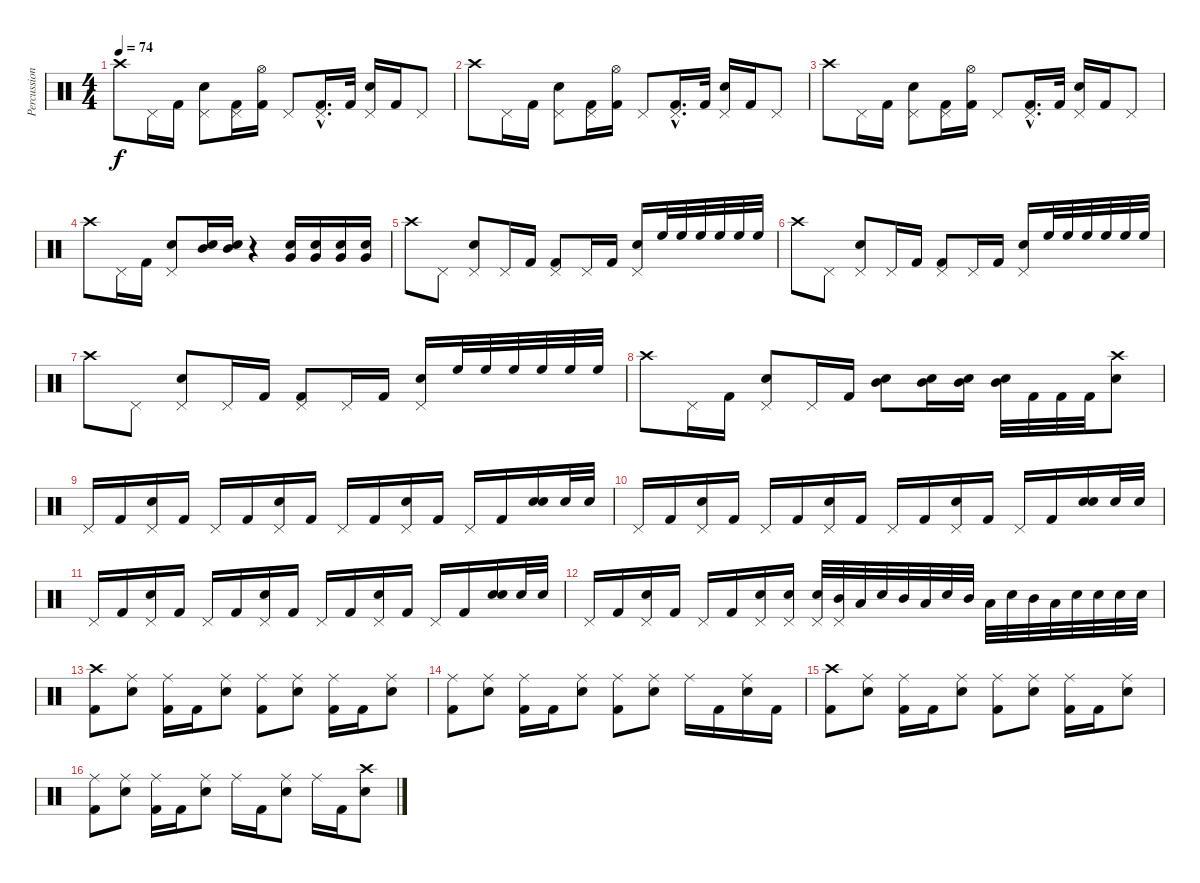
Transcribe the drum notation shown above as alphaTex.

\track ("Percussion" "Percussion") {instrument percussion}
\staff {score}
\articulation defaults
\ts (4 4)
\tempo 74
\clef neutral
\ks c "Crash high (hit)".8{dy f} "Pedal Hi-Hat (hit)".16 "Kick (hit) 2".16
("Pedal Hi-Hat (hit)" "Snare (hit) 2").8 ("Pedal Hi-Hat (hit)" "Kick (hit) 2").16 ("Hi-Hat (open)" "Kick (hit) 2").16 "Pedal Hi-Hat (hit)".8 ("Pedal Hi-Hat (hit)"{hac} "Kick (hit) 2"{hac}).16{d} "Kick (hit) 2".32 ("Pedal Hi-Hat (hit)" "Snare (hit) 2").16 "Kick (hit) 2".16 "Pedal Hi-Hat (hit)".8 |
"Crash high (hit)".8 "Pedal Hi-Hat (hit)".16 "Kick (hit) 2".16 ("Pedal Hi-Hat (hit)" "Snare (hit) 2").8 ("Pedal Hi-Hat (hit)" "Kick (hit) 2").16 ("Hi-Hat (open)" "Kick (hit) 2").16 "Pedal Hi-Hat (hit)".8 ("Pedal Hi-Hat (hit)"{hac} "Kick (hit) 2"{hac}).16{d} "Kick (hit) 2".32 ("Pedal Hi-Hat (hit)" "Snare (hit) 2").16 "Kick (hit) 2".16 "Pedal Hi-Hat (hit)".8 |
"Crash high (hit)".8 "Pedal Hi-Hat (hit)".16 "Kick (hit) 2".16 ("Pedal Hi-Hat (hit)" "Snare (hit) 2").8 ("Pedal Hi-Hat (hit)" "Kick (hit) 2").16 ("Hi-Hat (open)" "Kick (hit) 2").16 "Pedal Hi-Hat (hit)".8 ("Pedal Hi-Hat (hit)"{hac} "Kick (hit) 2"{hac}).16{d} "Kick (hit) 2".32 ("Pedal Hi-Hat (hit)" "Snare (hit) 2").16 "Kick (hit) 2".16 "Pedal Hi-Hat (hit)".8 |
"Crash high (hit)".8 "Pedal Hi-Hat (hit)".16 "Kick (hit) 2".16 ("Pedal Hi-Hat (hit)" "Snare (hit) 2").8 ("Mid Tom (hit)" "Snare (hit) 2").16 ("Mid Tom (hit)" "Snare (hit) 2").16 r.4 ("Very Low Tom (hit)" "Snare (hit) 2").16 ("Very Low Tom (hit)" "Snare (hit) 2").16 ("Very Low Tom (hit)" "Snare (hit) 2").16 ("Very Low Tom (hit)" "Snare (hit) 2").16 |
"Crash high (hit)".8 "Pedal Hi-Hat (hit)".8 ("Pedal Hi-Hat (hit)" "Snare (hit) 2").8 "Pedal Hi-Hat (hit)".16 "Kick (hit) 2".16 ("Pedal Hi-Hat (hit)" "Kick (hit) 2").8 "Pedal Hi-Hat (hit)".16 "Kick (hit) 2".16 ("Pedal Hi-Hat (hit)" "Snare (hit) 2").16 "High Floor Tom (hit)".32 "High Floor Tom (hit)".32 "High Floor Tom (hit)".32 "High Floor Tom (hit)".32 "High Floor Tom (hit)".32 "High Floor Tom (hit)".32 |
"Crash high (hit)".8 "Pedal Hi-Hat (hit)".8 ("Pedal Hi-Hat (hit)" "Snare (hit) 2").8 "Pedal Hi-Hat (hit)".16 "Kick (hit) 2".16 ("Pedal Hi-Hat (hit)" "Kick (hit) 2").8 "Pedal Hi-Hat (hit)".16 "Kick (hit) 2".16 ("Pedal Hi-Hat (hit)" "Snare (hit) 2").16 "High Floor Tom (hit)".32 "High Floor Tom (hit)".32 "High Floor Tom (hit)".32 "High Floor Tom (hit)".32 "High Floor Tom (hit)".32 "High Floor Tom (hit)".32 |
"Crash high (hit)".8 "Pedal Hi-Hat (hit)".8 ("Pedal Hi-Hat (hit)" "Snare (hit) 2").8 "Pedal Hi-Hat (hit)".16 "Kick (hit) 2".16 ("Pedal Hi-Hat (hit)" "Kick (hit) 2").8 "Pedal Hi-Hat (hit)".16 "Kick (hit) 2".16 ("Pedal Hi-Hat (hit)" "Snare (hit) 2").16 "High Floor Tom (hit)".32 "High Floor Tom (hit)".32 "High Floor Tom (hit)".32 "High Floor Tom (hit)".32 "High Floor Tom (hit)".32 "High Floor Tom (hit)".32 |
"Crash high (hit)".8 "Pedal Hi-Hat (hit)".16 "Kick (hit) 2".16 ("Pedal Hi-Hat (hit)" "Snare (hit) 2").8 "Pedal Hi-Hat (hit)".16 "Kick (hit) 2".16 ("Mid Tom (hit)" "Snare (hit) 2").8 ("Mid Tom (hit)" "Snare (hit) 2").16 ("Mid Tom (hit)" "Snare (hit) 2").16 ("Mid Tom (hit)" "Snare (hit) 2").32 "Kick (hit) 2".32 "Kick (hit) 2".32 "Kick (hit) 2".32 ("Crash high (hit)" "Snare (hit) 2").8 |
"Pedal Hi-Hat (hit)".16 "Kick (hit) 2".16 ("Pedal Hi-Hat (hit)" "Snare (hit) 2").16 "Kick (hit) 2".16 "Pedal Hi-Hat (hit)".16 "Kick (hit) 2".16 ("Pedal Hi-Hat (hit)" "Snare (hit) 2").16 "Kick (hit) 2".16 "Pedal Hi-Hat (hit)".16 "Kick (hit) 2".16 ("Pedal Hi-Hat (hit)" "Snare (hit) 2").16 "Kick (hit) 2".16 "Pedal Hi-Hat (hit)".16 "Kick (hit) 2".16 ("Snare (hit) 2" "Snare (hit) 2").16 "Snare (hit) 2".32 "Snare (hit) 2".32 |
"Pedal Hi-Hat (hit)".16 "Kick (hit) 2".16 ("Pedal Hi-Hat (hit)" "Snare (hit) 2").16 "Kick (hit) 2".16 "Pedal Hi-Hat (hit)".16 "Kick (hit) 2".16 ("Pedal Hi-Hat (hit)" "Snare (hit) 2").16 "Kick (hit) 2".16 "Pedal Hi-Hat (hit)".16 "Kick (hit) 2".16 ("Pedal Hi-Hat (hit)" "Snare (hit) 2").16 "Kick (hit) 2".16 "Pedal Hi-Hat (hit)".16 "Kick (hit) 2".16 ("Snare (hit) 2" "Snare (hit) 2").16 "Snare (hit) 2".32 "Snare (hit) 2".32 |
"Pedal Hi-Hat (hit)".16 "Kick (hit) 2".16 ("Pedal Hi-Hat (hit)" "Snare (hit) 2").16 "Kick (hit) 2".16 "Pedal Hi-Hat (hit)".16 "Kick (hit) 2".16 ("Pedal Hi-Hat (hit)" "Snare (hit) 2").16 "Kick (hit) 2".16 "Pedal Hi-Hat (hit)".16 "Kick (hit) 2".16 ("Pedal Hi-Hat (hit)" "Snare (hit) 2").16 "Kick (hit) 2".16 "Pedal Hi-Hat (hit)".16 "Kick (hit) 2".16 ("Snare (hit) 2" "Snare (hit) 2").16 "Snare (hit) 2".32 "Snare (hit) 2".32 |
"Pedal Hi-Hat (hit)".16 "Kick (hit) 2".16 ("Pedal Hi-Hat (hit)" "Snare (hit) 2").16 "Kick (hit) 2".16 "Pedal Hi-Hat (hit)".16 "Kick (hit) 2".16 ("Pedal Hi-Hat (hit)" "Snare (hit) 2").16 ("Pedal Hi-Hat (hit)" "Snare (hit) 2").16 ("Pedal Hi-Hat (hit)" "Snare (hit) 2").32 ("Pedal Hi-Hat (hit)" "Mid Tom (hit)").32 "Low Tom (hit)".32 "Snare (hit) 2".32 "Mid Tom (hit)".32 "Low Tom (hit)".32 "Snare (hit) 2".32 "Mid Tom (hit)".32 "Low Tom (hit)".32 "Snare (hit) 2".32 "Mid Tom (hit)".32 "Low Tom (hit)".32 "Snare (hit) 2".32 "Snare (hit) 2".32 "Snare (hit) 2".32 "Snare (hit) 2".32 |
("Crash high (hit)" "Kick (hit) 2").8 ("Ride (middle)" "Snare (hit) 2").8 ("Ride (middle)" "Kick (hit) 2").16 "Kick (hit) 2".16 ("Ride (middle)" "Snare (hit) 2").8 ("Ride (middle)" "Kick (hit) 2").8 ("Ride (middle)" "Snare (hit) 2").8 ("Ride (middle)" "Kick (hit) 2").16 "Kick (hit) 2".16 ("Ride (middle)" "Snare (hit) 2").8 |
("Ride (middle)" "Kick (hit) 2").8 ("Ride (middle)" "Snare (hit) 2").8 ("Ride (middle)" "Kick (hit) 2").16 "Kick (hit) 2".16 ("Ride (middle)" "Snare (hit) 2").8 ("Ride (middle)" "Kick (hit) 2").8 ("Ride (middle)" "Snare (hit) 2").8 "Ride (middle)".16 "Kick (hit) 2".16 ("Ride (middle)" "Snare (hit) 2").16 "Kick (hit) 2".16 |
("Crash high (hit)" "Kick (hit) 2").8 ("Ride (middle)" "Snare (hit) 2").8 ("Ride (middle)" "Kick (hit) 2").16 "Kick (hit) 2".16 ("Ride (middle)" "Snare (hit) 2").8 ("Ride (middle)" "Kick (hit) 2").8 ("Ride (middle)" "Snare (hit) 2").8 ("Ride (middle)" "Kick (hit) 2").16 "Kick (hit) 2".16 ("Ride (middle)" "Snare (hit) 2").8 |
("Ride (middle)" "Kick (hit) 2").8 ("Ride (middle)" "Snare (hit) 2").8 ("Ride (middle)" "Kick (hit) 2").16 "Kick (hit) 2".16 ("Ride (middle)" "Snare (hit) 2").8 "Ride (middle)".16 "Kick (hit) 2".16 ("Ride (middle)" "Snare (hit) 2").8 "Ride (middle)".16 "Kick (hit) 2".16 ("Crash high (hit)" "Snare (hit) 2").8
